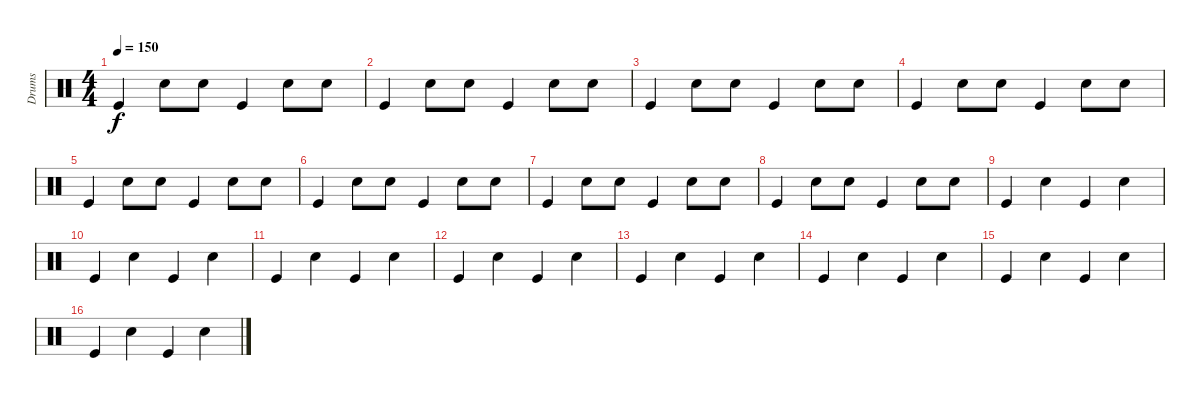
\track ("Drums" "Drums") {instrument percussion}
\staff {score}
\articulation defaults
\ts (4 4)
\tempo 150
\clef neutral
\ks c "Kick (hit)".4{dy f} "Snare (hit) 2".8 "Snare (hit) 2".8 "Kick (hit)".4 "Snare (hit) 2".8 "Snare (hit) 2".8
|
"Kick (hit)".4 "Snare (hit) 2".8 "Snare (hit) 2".8 "Kick (hit)".4 "Snare (hit) 2".8 "Snare (hit) 2".8 |
"Kick (hit)".4 "Snare (hit) 2".8 "Snare (hit) 2".8 "Kick (hit)".4 "Snare (hit) 2".8 "Snare (hit) 2".8 |
"Kick (hit)".4 "Snare (hit) 2".8 "Snare (hit) 2".8 "Kick (hit)".4 "Snare (hit) 2".8 "Snare (hit) 2".8 |
"Kick (hit)".4 "Snare (hit) 2".8 "Snare (hit) 2".8 "Kick (hit)".4 "Snare (hit) 2".8 "Snare (hit) 2".8 |
"Kick (hit)".4 "Snare (hit) 2".8 "Snare (hit) 2".8 "Kick (hit)".4 "Snare (hit) 2".8 "Snare (hit) 2".8 |
"Kick (hit)".4 "Snare (hit) 2".8 "Snare (hit) 2".8 "Kick (hit)".4 "Snare (hit) 2".8 "Snare (hit) 2".8 |
"Kick (hit)".4 "Snare (hit) 2".8 "Snare (hit) 2".8 "Kick (hit)".4 "Snare (hit) 2".8 "Snare (hit) 2".8 |
"Kick (hit)".4 "Snare (hit) 2".4 "Kick (hit)".4 "Snare (hit) 2".4 |
"Kick (hit)".4 "Snare (hit) 2".4 "Kick (hit)".4 "Snare (hit) 2".4 |
"Kick (hit)".4 "Snare (hit) 2".4 "Kick (hit)".4 "Snare (hit) 2".4 |
"Kick (hit)".4 "Snare (hit) 2".4 "Kick (hit)".4 "Snare (hit) 2".4 |
"Kick (hit)".4 "Snare (hit) 2".4 "Kick (hit)".4 "Snare (hit) 2".4 |
"Kick (hit)".4 "Snare (hit) 2".4 "Kick (hit)".4 "Snare (hit) 2".4 |
"Kick (hit)".4 "Snare (hit) 2".4 "Kick (hit)".4 "Snare (hit) 2".4 |
"Kick (hit)".4 "Snare (hit) 2".4 "Kick (hit)".4 "Snare (hit) 2".4
